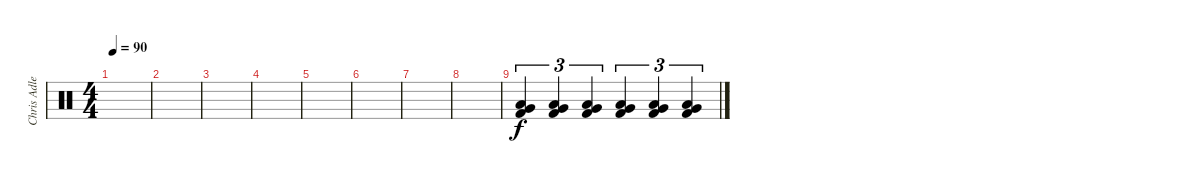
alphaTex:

\track ("Chris Adler" "Chris Adle") {instrument percussion}
\staff {score}
\articulation defaults
\ts (4 4)
\tempo 90
\clef neutral
\ks c
|
|
|
|
|
|
|
|
("Low Floor Tom (hit)" "Very Low Tom (hit)" "Kick (hit) 2").4{tu (3 2)} ("Low Floor Tom (hit)" "Very Low Tom (hit)" "Kick (hit) 2").4{tu (3 2)} ("Low Floor Tom (hit)" "Very Low Tom (hit)" "Kick (hit) 2").4{tu (3 2)} ("Low Floor Tom (hit)" "Very Low Tom (hit)" "Kick (hit) 2").4{tu (3 2)} ("Low Floor Tom (hit)" "Very Low Tom (hit)" "Kick (hit) 2").4{tu (3 2)} ("Low Floor Tom (hit)" "Very Low Tom (hit)" "Kick (hit) 2").4{tu (3 2)}
